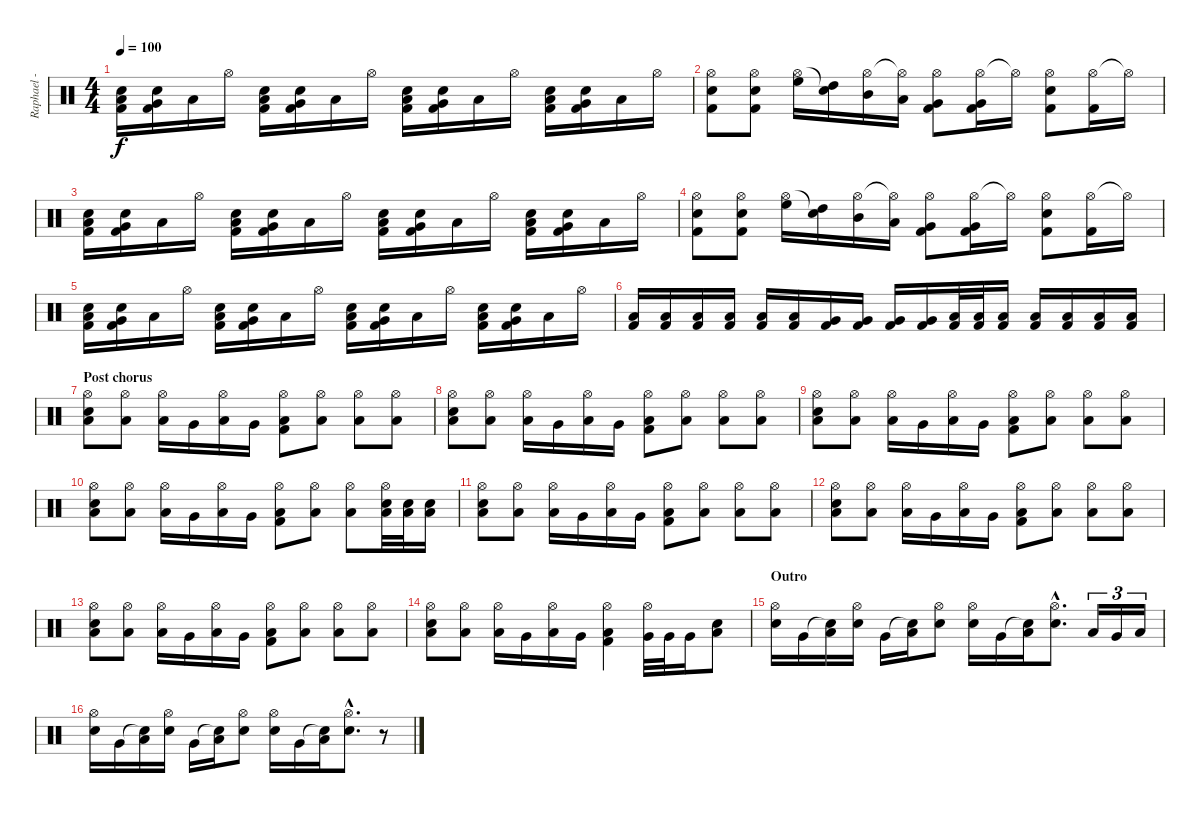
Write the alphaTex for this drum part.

\track ("Raphael - Batterie" "Raphael - ") {instrument percussion}
\staff {score}
\articulation defaults
\ts (4 4)
\tempo 100
\clef neutral
\ks c
("Low Tom (hit)" "Electric Snare (hit)" "Kick (hit) 2").16{dy f} ("Very Low Tom (hit)" "Electric Snare (hit)" "Kick (hit) 2").16 "Low Floor Tom (hit)".16 "Hi-Hat (open)".16 ("Low Tom (hit)" "Electric Snare (hit)" "Kick (hit) 2").16 ("Very Low Tom (hit)" "Electric Snare (hit)" "Kick (hit) 2").16 "Low Floor Tom (hit)".16 "Hi-Hat (open)".16 ("Low Tom (hit)" "Electric Snare (hit)" "Kick (hit) 2").16 ("Very Low Tom (hit)" "Electric Snare (hit)" "Kick (hit) 2").16 "Low Floor Tom (hit)".16 "Hi-Hat (open)".16 ("Low Tom (hit)" "Electric Snare (hit)" "Kick (hit) 2").16 ("Very Low Tom (hit)" "Electric Snare (hit)" "Kick (hit) 2").16 "Low Floor Tom (hit)".16 "Hi-Hat (open)".16 |
("Hi-Hat (open)" "Electric Snare (hit)" "Kick (hit) 2").8 ("Hi-Hat (open)" "Electric Snare (hit)" "Kick (hit) 2").8 ("Hi-Hat (open)" "High Floor Tom (hit)").16 ("Snare (hit)"{t} "High Tom (hit)").16 ("Hi-Hat (open)" "Mid Tom (hit)").16 ("Hi-Hat (open)"{t} "Low Tom (hit)").16 ("Hi-Hat (open)" "Very Low Tom (hit)" "Kick (hit) 2").8 ("Hi-Hat (open)" "Very Low Tom (hit)" "Kick (hit) 2").16 "Hi-Hat (open)"{t}.16 ("Hi-Hat (open)" "Snare (hit) 2" "Kick (hit) 2").8 ("Hi-Hat (open)" "Kick (hit) 2").16 "Hi-Hat (open)"{t}.16 |
("Low Tom (hit)" "Electric Snare (hit)" "Kick (hit) 2").16 ("Very Low Tom (hit)" "Electric Snare (hit)" "Kick (hit) 2").16 "Low Floor Tom (hit)".16 "Hi-Hat (open)".16 ("Low Tom (hit)" "Electric Snare (hit)" "Kick (hit) 2").16 ("Very Low Tom (hit)" "Electric Snare (hit)" "Kick (hit) 2").16 "Low Floor Tom (hit)".16 "Hi-Hat (open)".16 ("Low Tom (hit)" "Electric Snare (hit)" "Kick (hit) 2").16 ("Very Low Tom (hit)" "Electric Snare (hit)" "Kick (hit) 2").16 "Low Floor Tom (hit)".16 "Hi-Hat (open)".16 ("Low Tom (hit)" "Electric Snare (hit)" "Kick (hit) 2").16 ("Very Low Tom (hit)" "Electric Snare (hit)" "Kick (hit) 2").16 "Low Floor Tom (hit)".16 "Hi-Hat (open)".16 |
("Hi-Hat (open)" "Electric Snare (hit)" "Kick (hit) 2").8 ("Hi-Hat (open)" "Electric Snare (hit)" "Kick (hit) 2").8 ("Hi-Hat (open)" "High Floor Tom (hit)").16 ("Snare (hit)"{t} "High Tom (hit)").16 ("Hi-Hat (open)" "Mid Tom (hit)").16 ("Hi-Hat (open)"{t} "Low Tom (hit)").16 ("Hi-Hat (open)" "Very Low Tom (hit)" "Kick (hit) 2").8 ("Hi-Hat (open)" "Very Low Tom (hit)" "Kick (hit) 2").16 "Hi-Hat (open)"{t}.16 ("Hi-Hat (open)" "Snare (hit) 2" "Kick (hit) 2").8 ("Hi-Hat (open)" "Kick (hit) 2").16 "Hi-Hat (open)"{t}.16 |
("Low Tom (hit)" "Electric Snare (hit)" "Kick (hit) 2").16 ("Very Low Tom (hit)" "Electric Snare (hit)" "Kick (hit) 2").16 "Low Floor Tom (hit)".16 "Hi-Hat (open)".16 ("Low Tom (hit)" "Electric Snare (hit)" "Kick (hit) 2").16 ("Very Low Tom (hit)" "Electric Snare (hit)" "Kick (hit) 2").16 "Low Floor Tom (hit)".16 "Hi-Hat (open)".16 ("Low Tom (hit)" "Electric Snare (hit)" "Kick (hit) 2").16 ("Very Low Tom (hit)" "Electric Snare (hit)" "Kick (hit) 2").16 "Low Floor Tom (hit)".16 "Hi-Hat (open)".16 ("Low Tom (hit)" "Electric Snare (hit)" "Kick (hit) 2").16 ("Very Low Tom (hit)" "Electric Snare (hit)" "Kick (hit) 2").16 "Low Floor Tom (hit)".16 "Hi-Hat (open)".16 |
("Low Tom (hit)" "Kick (hit) 2").16 ("Low Tom (hit)" "Kick (hit) 2").16 ("Low Tom (hit)" "Kick (hit) 2").16 ("Low Tom (hit)" "Kick (hit) 2").16 ("Low Tom (hit)" "Kick (hit) 2").16 ("Low Tom (hit)" "Kick (hit) 2").16 ("Very Low Tom (hit)" "Kick (hit) 2").16 ("Very Low Tom (hit)" "Kick (hit) 2").16 ("Very Low Tom (hit)" "Kick (hit) 2").16 ("Very Low Tom (hit)" "Kick (hit) 2").16 ("Low Floor Tom (hit)" "Kick (hit) 2").32 ("Low Floor Tom (hit)" "Kick (hit) 2").32 ("Low Floor Tom (hit)" "Kick (hit) 2").16 ("Low Floor Tom (hit)" "Kick (hit) 2").16 ("Low Floor Tom (hit)" "Kick (hit) 2").16 ("Low Floor Tom (hit)" "Kick (hit) 2").16 ("Low Floor Tom (hit)" "Kick (hit) 2").16 |
\section ("" "Post chorus")
("Hi-Hat (open)" "Low Floor Tom (hit)" "Snare (hit) 2").8 ("Hi-Hat (open)" "Low Floor Tom (hit)").8 ("Hi-Hat (open)" "Low Tom (hit)").16 "Very Low Tom (hit)".16 ("Hi-Hat (open)" "Low Floor Tom (hit)").16 "Very Low Tom (hit)".16 ("Hi-Hat (open)" "Low Floor Tom (hit)" "Kick (hit) 2").8 ("Hi-Hat (open)" "Low Floor Tom (hit)").8 ("Hi-Hat (open)" "Low Floor Tom (hit)").8 ("Hi-Hat (open)" "Low Floor Tom (hit)").8 |
("Hi-Hat (open)" "Low Floor Tom (hit)" "Snare (hit) 2").8 ("Hi-Hat (open)" "Low Floor Tom (hit)").8 ("Hi-Hat (open)" "Low Tom (hit)").16 "Very Low Tom (hit)".16 ("Hi-Hat (open)" "Low Floor Tom (hit)").16 "Very Low Tom (hit)".16 ("Hi-Hat (open)" "Low Floor Tom (hit)" "Kick (hit) 2").8 ("Hi-Hat (open)" "Low Floor Tom (hit)").8 ("Hi-Hat (open)" "Low Floor Tom (hit)").8 ("Hi-Hat (open)" "Low Floor Tom (hit)").8 |
("Hi-Hat (open)" "Low Floor Tom (hit)" "Snare (hit) 2").8 ("Hi-Hat (open)" "Low Floor Tom (hit)").8 ("Hi-Hat (open)" "Low Tom (hit)").16 "Very Low Tom (hit)".16 ("Hi-Hat (open)" "Low Floor Tom (hit)").16 "Very Low Tom (hit)".16 ("Hi-Hat (open)" "Low Floor Tom (hit)" "Kick (hit) 2").8 ("Hi-Hat (open)" "Low Floor Tom (hit)").8 ("Hi-Hat (open)" "Low Floor Tom (hit)").8 ("Hi-Hat (open)" "Low Floor Tom (hit)").8 |
("Hi-Hat (open)" "Low Floor Tom (hit)" "Snare (hit) 2").8 ("Hi-Hat (open)" "Low Floor Tom (hit)").8 ("Hi-Hat (open)" "Low Tom (hit)").16 "Very Low Tom (hit)".16 ("Hi-Hat (open)" "Low Floor Tom (hit)").16 "Very Low Tom (hit)".16 ("Hi-Hat (open)" "Low Floor Tom (hit)" "Kick (hit) 2").8 ("Hi-Hat (open)" "Low Floor Tom (hit)").8 ("Hi-Hat (open)" "Low Floor Tom (hit)").8 ("Hi-Hat (open)" "Low Floor Tom (hit)" "Snare (hit) 2").32 ("Low Floor Tom (hit)" "Snare (hit) 2").32 ("Low Floor Tom (hit)" "Snare (hit) 2").16 |
("Hi-Hat (open)" "Low Floor Tom (hit)" "Snare (hit) 2").8 ("Hi-Hat (open)" "Low Floor Tom (hit)").8 ("Hi-Hat (open)" "Low Tom (hit)").16 "Very Low Tom (hit)".16 ("Hi-Hat (open)" "Low Floor Tom (hit)").16 "Very Low Tom (hit)".16 ("Hi-Hat (open)" "Low Floor Tom (hit)" "Kick (hit) 2").8 ("Hi-Hat (open)" "Low Floor Tom (hit)").8 ("Hi-Hat (open)" "Low Floor Tom (hit)").8 ("Hi-Hat (open)" "Low Floor Tom (hit)").8 |
("Hi-Hat (open)" "Low Floor Tom (hit)" "Snare (hit) 2").8 ("Hi-Hat (open)" "Low Floor Tom (hit)").8 ("Hi-Hat (open)" "Low Tom (hit)").16 "Very Low Tom (hit)".16 ("Hi-Hat (open)" "Low Floor Tom (hit)").16 "Very Low Tom (hit)".16 ("Hi-Hat (open)" "Low Floor Tom (hit)" "Kick (hit) 2").8 ("Hi-Hat (open)" "Low Floor Tom (hit)").8 ("Hi-Hat (open)" "Low Floor Tom (hit)").8 ("Hi-Hat (open)" "Low Floor Tom (hit)").8 |
("Hi-Hat (open)" "Low Floor Tom (hit)" "Snare (hit) 2").8 ("Hi-Hat (open)" "Low Floor Tom (hit)").8 ("Hi-Hat (open)" "Low Tom (hit)").16 "Very Low Tom (hit)".16 ("Hi-Hat (open)" "Low Floor Tom (hit)").16 "Very Low Tom (hit)".16 ("Hi-Hat (open)" "Low Floor Tom (hit)" "Kick (hit) 2").8 ("Hi-Hat (open)" "Low Floor Tom (hit)").8 ("Hi-Hat (open)" "Low Floor Tom (hit)").8 ("Hi-Hat (open)" "Low Floor Tom (hit)").8 |
("Hi-Hat (open)" "Low Floor Tom (hit)" "Snare (hit) 2").8 ("Hi-Hat (open)" "Low Floor Tom (hit)").8 ("Hi-Hat (open)" "Low Tom (hit)").16 "Very Low Tom (hit)".16 ("Hi-Hat (open)" "Low Floor Tom (hit)").16 "Very Low Tom (hit)".16 ("Hi-Hat (open)" "Low Floor Tom (hit)" "Kick (hit) 2").4 ("Hi-Hat (open)" "Very Low Tom (hit)").32 "Very Low Tom (hit)".32 "Very Low Tom (hit)".16 ("Low Floor Tom (hit)" "Snare (hit) 2").8 |
\section ("" "Outro")
("Hi-Hat (open)" "Electric Snare (hit)").16 "Very Low Tom (hit)".16 ("Snare (hit)"{t} "Low Floor Tom (hit)").16 ("Hi-Hat (open)" "Electric Snare (hit)").16 "Very Low Tom (hit)".16 ("Snare (hit)"{t} "Low Floor Tom (hit)").16 ("Hi-Hat (open)" "Electric Snare (hit)").8 ("Hi-Hat (open)" "Electric Snare (hit)").16 "Very Low Tom (hit)".16 ("Snare (hit)"{t} "Low Floor Tom (hit)").16 ("Hi-Hat (open)"{hac} "Electric Snare (hit)"{hac}).8{d} "Low Tom (hit)".16{tu (3 2)} "Very Low Tom (hit)".16{tu (3 2)} "Low Floor Tom (hit)".16{tu (3 2)} |
("Hi-Hat (open)" "Electric Snare (hit)").16 "Very Low Tom (hit)".16 ("Snare (hit)"{t} "Low Floor Tom (hit)").16 ("Hi-Hat (open)" "Electric Snare (hit)").16 "Very Low Tom (hit)".16 ("Snare (hit)"{t} "Low Floor Tom (hit)").16 ("Hi-Hat (open)" "Electric Snare (hit)").8 ("Hi-Hat (open)" "Electric Snare (hit)").16 "Very Low Tom (hit)".16 ("Snare (hit)"{t} "Low Floor Tom (hit)").16 ("Hi-Hat (open)"{hac} "Electric Snare (hit)"{hac}).8{d} r.8
